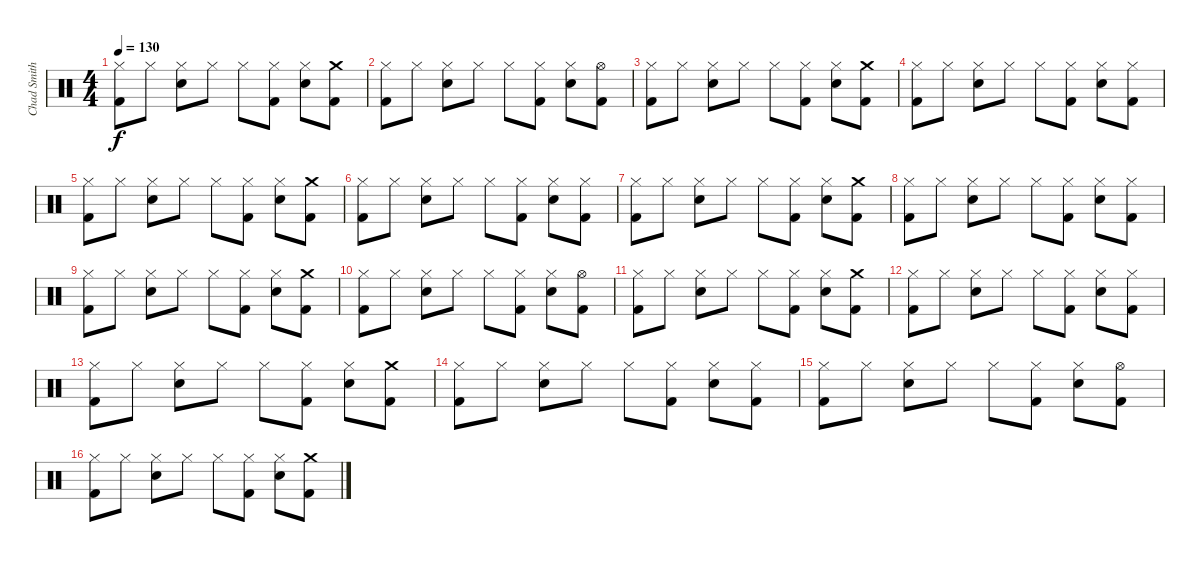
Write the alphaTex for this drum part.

\track ("Chad Smith" "Chad Smith") {instrument percussion}
\staff {score}
\articulation defaults
\ts (4 4)
\tempo 130
\clef neutral
\ks c
("Hi-Hat (closed)" "Kick (hit) 2").8{dy f} "Hi-Hat (closed)".8 ("Hi-Hat (closed)" "Electric Snare (hit)").8 "Hi-Hat (closed)".8 "Hi-Hat (closed)".8 ("Hi-Hat (closed)" "Kick (hit) 2").8 ("Hi-Hat (closed)" "Electric Snare (hit)").8 ("Crash medium (hit)" "Kick (hit) 2").8 |
("Hi-Hat (closed)" "Kick (hit) 2").8 "Hi-Hat (closed)".8 ("Hi-Hat (closed)" "Electric Snare (hit)").8 "Hi-Hat (closed)".8 "Hi-Hat (closed)".8 ("Hi-Hat (closed)" "Kick (hit) 2").8 ("Hi-Hat (closed)" "Electric Snare (hit)").8 ("Hi-Hat (open)" "Kick (hit) 2").8 |
("Hi-Hat (closed)" "Kick (hit) 2").8 "Hi-Hat (closed)".8 ("Hi-Hat (closed)" "Electric Snare (hit)").8 "Hi-Hat (closed)".8 "Hi-Hat (closed)".8 ("Hi-Hat (closed)" "Kick (hit) 2").8 ("Hi-Hat (closed)" "Electric Snare (hit)").8 ("Crash medium (hit)" "Kick (hit) 2").8 |
("Hi-Hat (closed)" "Kick (hit) 2").8 "Hi-Hat (closed)".8 ("Hi-Hat (closed)" "Electric Snare (hit)").8 "Hi-Hat (closed)".8 "Hi-Hat (closed)".8 ("Hi-Hat (closed)" "Kick (hit) 2").8 ("Hi-Hat (closed)" "Electric Snare (hit)").8 ("Hi-Hat (closed)" "Kick (hit) 2").8 |
("Hi-Hat (closed)" "Kick (hit) 2").8 "Hi-Hat (closed)".8 ("Hi-Hat (closed)" "Electric Snare (hit)").8 "Hi-Hat (closed)".8 "Hi-Hat (closed)".8 ("Hi-Hat (closed)" "Kick (hit) 2").8 ("Hi-Hat (closed)" "Electric Snare (hit)").8 ("Crash medium (hit)" "Kick (hit) 2").8 |
("Hi-Hat (closed)" "Kick (hit) 2").8 "Hi-Hat (closed)".8 ("Hi-Hat (closed)" "Electric Snare (hit)").8 "Hi-Hat (closed)".8 "Hi-Hat (closed)".8 ("Hi-Hat (closed)" "Kick (hit) 2").8 ("Hi-Hat (closed)" "Electric Snare (hit)").8 ("Hi-Hat (closed)" "Kick (hit) 2").8 |
("Hi-Hat (closed)" "Kick (hit) 2").8 "Hi-Hat (closed)".8 ("Hi-Hat (closed)" "Electric Snare (hit)").8 "Hi-Hat (closed)".8 "Hi-Hat (closed)".8 ("Hi-Hat (closed)" "Kick (hit) 2").8 ("Hi-Hat (closed)" "Electric Snare (hit)").8 ("Crash medium (hit)" "Kick (hit) 2").8 |
("Hi-Hat (closed)" "Kick (hit) 2").8 "Hi-Hat (closed)".8 ("Hi-Hat (closed)" "Electric Snare (hit)").8 "Hi-Hat (closed)".8 "Hi-Hat (closed)".8 ("Hi-Hat (closed)" "Kick (hit) 2").8 ("Hi-Hat (closed)" "Electric Snare (hit)").8 ("Hi-Hat (closed)" "Kick (hit) 2").8 |
("Hi-Hat (closed)" "Kick (hit) 2").8 "Hi-Hat (closed)".8 ("Hi-Hat (closed)" "Electric Snare (hit)").8 "Hi-Hat (closed)".8 "Hi-Hat (closed)".8 ("Hi-Hat (closed)" "Kick (hit) 2").8 ("Hi-Hat (closed)" "Electric Snare (hit)").8 ("Crash medium (hit)" "Kick (hit) 2").8 |
("Hi-Hat (closed)" "Kick (hit) 2").8 "Hi-Hat (closed)".8 ("Hi-Hat (closed)" "Electric Snare (hit)").8 "Hi-Hat (closed)".8 "Hi-Hat (closed)".8 ("Hi-Hat (closed)" "Kick (hit) 2").8 ("Hi-Hat (closed)" "Electric Snare (hit)").8 ("Hi-Hat (open)" "Kick (hit) 2").8 |
("Hi-Hat (closed)" "Kick (hit) 2").8 "Hi-Hat (closed)".8 ("Hi-Hat (closed)" "Electric Snare (hit)").8 "Hi-Hat (closed)".8 "Hi-Hat (closed)".8 ("Hi-Hat (closed)" "Kick (hit) 2").8 ("Hi-Hat (closed)" "Electric Snare (hit)").8 ("Crash medium (hit)" "Kick (hit) 2").8 |
("Hi-Hat (closed)" "Kick (hit) 2").8 "Hi-Hat (closed)".8 ("Hi-Hat (closed)" "Electric Snare (hit)").8 "Hi-Hat (closed)".8 "Hi-Hat (closed)".8 ("Hi-Hat (closed)" "Kick (hit) 2").8 ("Hi-Hat (closed)" "Electric Snare (hit)").8 ("Hi-Hat (closed)" "Kick (hit) 2").8 |
("Hi-Hat (closed)" "Kick (hit) 2").8 "Hi-Hat (closed)".8 ("Hi-Hat (closed)" "Electric Snare (hit)").8 "Hi-Hat (closed)".8 "Hi-Hat (closed)".8 ("Hi-Hat (closed)" "Kick (hit) 2").8 ("Hi-Hat (closed)" "Electric Snare (hit)").8 ("Crash medium (hit)" "Kick (hit) 2").8 |
("Hi-Hat (closed)" "Kick (hit) 2").8 "Hi-Hat (closed)".8 ("Hi-Hat (closed)" "Electric Snare (hit)").8 "Hi-Hat (closed)".8 "Hi-Hat (closed)".8 ("Hi-Hat (closed)" "Kick (hit) 2").8 ("Hi-Hat (closed)" "Electric Snare (hit)").8 ("Hi-Hat (closed)" "Kick (hit) 2").8 |
("Hi-Hat (closed)" "Kick (hit) 2").8 "Hi-Hat (closed)".8 ("Hi-Hat (closed)" "Electric Snare (hit)").8 "Hi-Hat (closed)".8 "Hi-Hat (closed)".8 ("Hi-Hat (closed)" "Kick (hit) 2").8 ("Hi-Hat (closed)" "Electric Snare (hit)").8 ("Hi-Hat (open)" "Kick (hit) 2").8 |
("Hi-Hat (closed)" "Kick (hit) 2").8 "Hi-Hat (closed)".8 ("Hi-Hat (closed)" "Electric Snare (hit)").8 "Hi-Hat (closed)".8 "Hi-Hat (closed)".8 ("Hi-Hat (closed)" "Kick (hit) 2").8 ("Hi-Hat (closed)" "Electric Snare (hit)").8 ("Crash medium (hit)" "Kick (hit) 2").8
